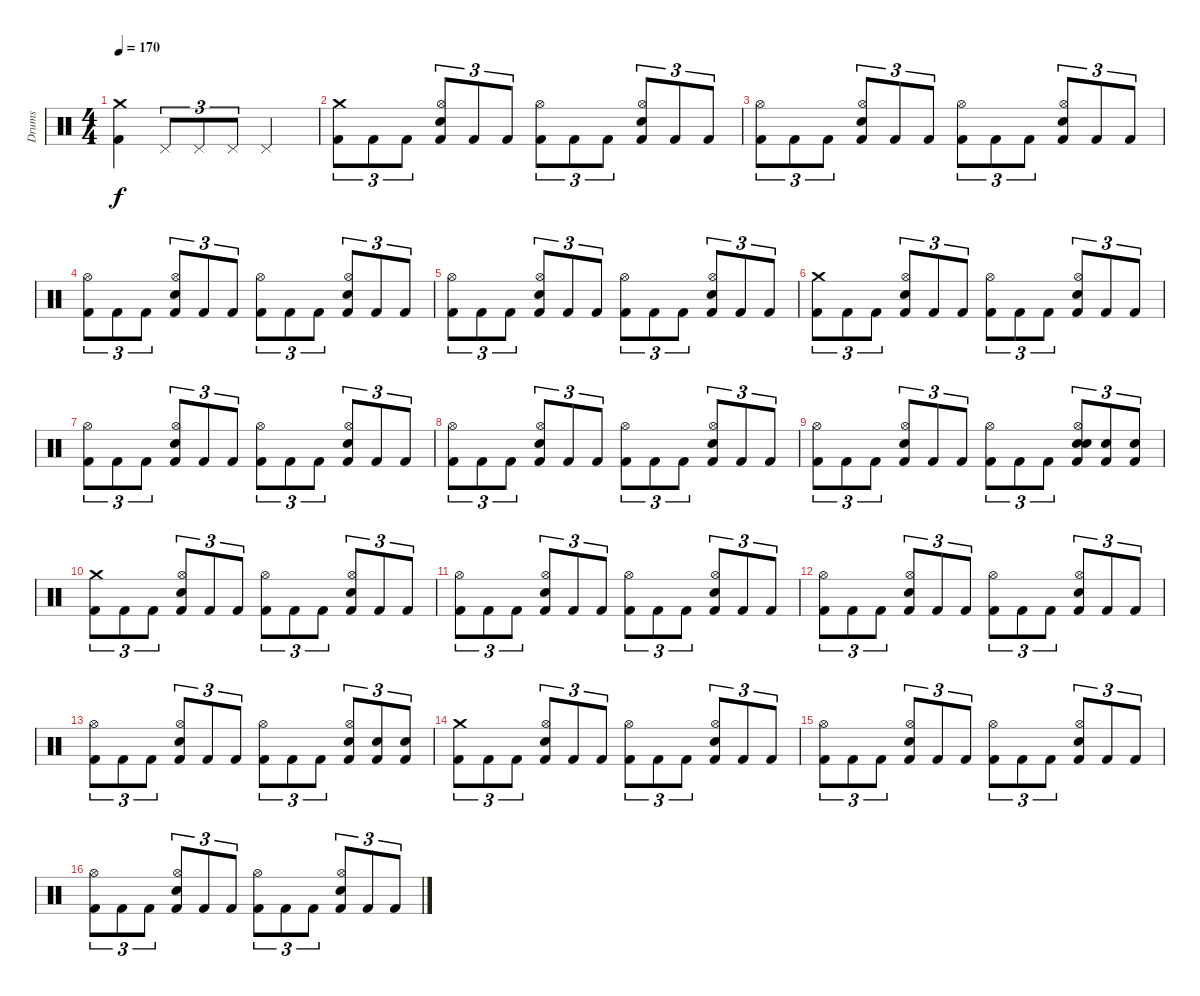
\track ("Drums" "Drums") {instrument percussion}
\staff {score}
\articulation defaults
\ts (4 4)
\tempo 170
\clef neutral
\ks c
("Crash medium (hit)" "Kick (hit) 2").4{dy f} "Pedal Hi-Hat (hit)".8{tu (3 2)} "Pedal Hi-Hat (hit)".8{tu (3 2)} "Pedal Hi-Hat (hit)".8{tu (3 2)} "Pedal Hi-Hat (hit)".2 |
("Crash medium (hit)" "Kick (hit) 2").8{tu (3 2)} "Kick (hit) 2".8{tu (3 2)} "Kick (hit) 2".8{tu (3 2)} ("Hi-Hat (open)" "Kick (hit) 2" "Snare (hit) 2").8{tu (3 2)} "Kick (hit) 2".8{tu (3 2)} "Kick (hit) 2".8{tu (3 2)} ("Hi-Hat (open)" "Kick (hit) 2").8{tu (3 2)} "Kick (hit) 2".8{tu (3 2)} "Kick (hit) 2".8{tu (3 2)} ("Hi-Hat (open)" "Snare (hit) 2" "Kick (hit) 2").8{tu (3 2)} "Kick (hit) 2".8{tu (3 2)} "Kick (hit) 2".8{tu (3 2)} |
("Hi-Hat (open)" "Kick (hit) 2").8{tu (3 2)} "Kick (hit) 2".8{tu (3 2)} "Kick (hit) 2".8{tu (3 2)} ("Hi-Hat (open)" "Kick (hit) 2" "Snare (hit) 2").8{tu (3 2)} "Kick (hit) 2".8{tu (3 2)} "Kick (hit) 2".8{tu (3 2)} ("Hi-Hat (open)" "Kick (hit) 2").8{tu (3 2)} "Kick (hit) 2".8{tu (3 2)} "Kick (hit) 2".8{tu (3 2)} ("Hi-Hat (open)" "Snare (hit) 2" "Kick (hit) 2").8{tu (3 2)} "Kick (hit) 2".8{tu (3 2)} "Kick (hit) 2".8{tu (3 2)} |
("Hi-Hat (open)" "Kick (hit) 2").8{tu (3 2)} "Kick (hit) 2".8{tu (3 2)} "Kick (hit) 2".8{tu (3 2)} ("Hi-Hat (open)" "Kick (hit) 2" "Snare (hit) 2").8{tu (3 2)} "Kick (hit) 2".8{tu (3 2)} "Kick (hit) 2".8{tu (3 2)} ("Hi-Hat (open)" "Kick (hit) 2").8{tu (3 2)} "Kick (hit) 2".8{tu (3 2)} "Kick (hit) 2".8{tu (3 2)} ("Hi-Hat (open)" "Snare (hit) 2" "Kick (hit) 2").8{tu (3 2)} "Kick (hit) 2".8{tu (3 2)} "Kick (hit) 2".8{tu (3 2)} |
("Hi-Hat (open)" "Kick (hit) 2").8{tu (3 2)} "Kick (hit) 2".8{tu (3 2)} "Kick (hit) 2".8{tu (3 2)} ("Hi-Hat (open)" "Kick (hit) 2" "Snare (hit) 2").8{tu (3 2)} "Kick (hit) 2".8{tu (3 2)} "Kick (hit) 2".8{tu (3 2)} ("Hi-Hat (open)" "Kick (hit) 2").8{tu (3 2)} "Kick (hit) 2".8{tu (3 2)} "Kick (hit) 2".8{tu (3 2)} ("Hi-Hat (open)" "Snare (hit) 2" "Kick (hit) 2").8{tu (3 2)} "Kick (hit) 2".8{tu (3 2)} "Kick (hit) 2".8{tu (3 2)} |
("Crash medium (hit)" "Kick (hit) 2").8{tu (3 2)} "Kick (hit) 2".8{tu (3 2)} "Kick (hit) 2".8{tu (3 2)} ("Hi-Hat (open)" "Kick (hit) 2" "Snare (hit) 2").8{tu (3 2)} "Kick (hit) 2".8{tu (3 2)} "Kick (hit) 2".8{tu (3 2)} ("Hi-Hat (open)" "Kick (hit) 2").8{tu (3 2)} "Kick (hit) 2".8{tu (3 2)} "Kick (hit) 2".8{tu (3 2)} ("Hi-Hat (open)" "Snare (hit) 2" "Kick (hit) 2").8{tu (3 2)} "Kick (hit) 2".8{tu (3 2)} "Kick (hit) 2".8{tu (3 2)} |
("Hi-Hat (open)" "Kick (hit) 2").8{tu (3 2)} "Kick (hit) 2".8{tu (3 2)} "Kick (hit) 2".8{tu (3 2)} ("Hi-Hat (open)" "Kick (hit) 2" "Snare (hit) 2").8{tu (3 2)} "Kick (hit) 2".8{tu (3 2)} "Kick (hit) 2".8{tu (3 2)} ("Hi-Hat (open)" "Kick (hit) 2").8{tu (3 2)} "Kick (hit) 2".8{tu (3 2)} "Kick (hit) 2".8{tu (3 2)} ("Hi-Hat (open)" "Snare (hit) 2" "Kick (hit) 2").8{tu (3 2)} "Kick (hit) 2".8{tu (3 2)} "Kick (hit) 2".8{tu (3 2)} |
("Hi-Hat (open)" "Kick (hit) 2").8{tu (3 2)} "Kick (hit) 2".8{tu (3 2)} "Kick (hit) 2".8{tu (3 2)} ("Hi-Hat (open)" "Kick (hit) 2" "Snare (hit) 2").8{tu (3 2)} "Kick (hit) 2".8{tu (3 2)} "Kick (hit) 2".8{tu (3 2)} ("Hi-Hat (open)" "Kick (hit) 2").8{tu (3 2)} "Kick (hit) 2".8{tu (3 2)} "Kick (hit) 2".8{tu (3 2)} ("Hi-Hat (open)" "Snare (hit) 2" "Kick (hit) 2").8{tu (3 2)} "Kick (hit) 2".8{tu (3 2)} "Kick (hit) 2".8{tu (3 2)} |
("Hi-Hat (open)" "Kick (hit) 2").8{tu (3 2)} "Kick (hit) 2".8{tu (3 2)} "Kick (hit) 2".8{tu (3 2)} ("Hi-Hat (open)" "Kick (hit) 2" "Snare (hit) 2").8{tu (3 2)} "Kick (hit) 2".8{tu (3 2)} "Kick (hit) 2".8{tu (3 2)} ("Hi-Hat (open)" "Kick (hit) 2").8{tu (3 2)} "Kick (hit) 2".8{tu (3 2)} "Kick (hit) 2".8{tu (3 2)} ("Snare (hit) 2" "Hi-Hat (open)" "Snare (hit) 2" "Kick (hit) 2").8{tu (3 2)} ("Snare (hit) 2" "Kick (hit) 2").8{tu (3 2)} ("Snare (hit) 2" "Kick (hit) 2").8{tu (3 2)} |
("Crash medium (hit)" "Kick (hit) 2").8{tu (3 2)} "Kick (hit) 2".8{tu (3 2)} "Kick (hit) 2".8{tu (3 2)} ("Hi-Hat (open)" "Kick (hit) 2" "Snare (hit) 2").8{tu (3 2)} "Kick (hit) 2".8{tu (3 2)} "Kick (hit) 2".8{tu (3 2)} ("Hi-Hat (open)" "Kick (hit) 2").8{tu (3 2)} "Kick (hit) 2".8{tu (3 2)} "Kick (hit) 2".8{tu (3 2)} ("Hi-Hat (open)" "Snare (hit) 2" "Kick (hit) 2").8{tu (3 2)} "Kick (hit) 2".8{tu (3 2)} "Kick (hit) 2".8{tu (3 2)} |
("Hi-Hat (open)" "Kick (hit) 2").8{tu (3 2)} "Kick (hit) 2".8{tu (3 2)} "Kick (hit) 2".8{tu (3 2)} ("Hi-Hat (open)" "Kick (hit) 2" "Snare (hit) 2").8{tu (3 2)} "Kick (hit) 2".8{tu (3 2)} "Kick (hit) 2".8{tu (3 2)} ("Hi-Hat (open)" "Kick (hit) 2").8{tu (3 2)} "Kick (hit) 2".8{tu (3 2)} "Kick (hit) 2".8{tu (3 2)} ("Hi-Hat (open)" "Snare (hit) 2" "Kick (hit) 2").8{tu (3 2)} "Kick (hit) 2".8{tu (3 2)} "Kick (hit) 2".8{tu (3 2)} |
("Hi-Hat (open)" "Kick (hit) 2").8{tu (3 2)} "Kick (hit) 2".8{tu (3 2)} "Kick (hit) 2".8{tu (3 2)} ("Hi-Hat (open)" "Kick (hit) 2" "Snare (hit) 2").8{tu (3 2)} "Kick (hit) 2".8{tu (3 2)} "Kick (hit) 2".8{tu (3 2)} ("Hi-Hat (open)" "Kick (hit) 2").8{tu (3 2)} "Kick (hit) 2".8{tu (3 2)} "Kick (hit) 2".8{tu (3 2)} ("Hi-Hat (open)" "Snare (hit) 2" "Kick (hit) 2").8{tu (3 2)} "Kick (hit) 2".8{tu (3 2)} "Kick (hit) 2".8{tu (3 2)} |
("Hi-Hat (open)" "Kick (hit) 2").8{tu (3 2)} "Kick (hit) 2".8{tu (3 2)} "Kick (hit) 2".8{tu (3 2)} ("Hi-Hat (open)" "Kick (hit) 2" "Snare (hit) 2").8{tu (3 2)} "Kick (hit) 2".8{tu (3 2)} "Kick (hit) 2".8{tu (3 2)} ("Hi-Hat (open)" "Kick (hit) 2").8{tu (3 2)} "Kick (hit) 2".8{tu (3 2)} "Kick (hit) 2".8{tu (3 2)} ("Hi-Hat (open)" "Snare (hit) 2" "Kick (hit) 2").8{tu (3 2)} ("Snare (hit) 2" "Kick (hit) 2").8{tu (3 2)} ("Snare (hit) 2" "Kick (hit) 2").8{tu (3 2)} |
("Crash medium (hit)" "Kick (hit) 2").8{tu (3 2)} "Kick (hit) 2".8{tu (3 2)} "Kick (hit) 2".8{tu (3 2)} ("Hi-Hat (open)" "Kick (hit) 2" "Snare (hit) 2").8{tu (3 2)} "Kick (hit) 2".8{tu (3 2)} "Kick (hit) 2".8{tu (3 2)} ("Hi-Hat (open)" "Kick (hit) 2").8{tu (3 2)} "Kick (hit) 2".8{tu (3 2)} "Kick (hit) 2".8{tu (3 2)} ("Hi-Hat (open)" "Snare (hit) 2" "Kick (hit) 2").8{tu (3 2)} "Kick (hit) 2".8{tu (3 2)} "Kick (hit) 2".8{tu (3 2)} |
("Hi-Hat (open)" "Kick (hit) 2").8{tu (3 2)} "Kick (hit) 2".8{tu (3 2)} "Kick (hit) 2".8{tu (3 2)} ("Hi-Hat (open)" "Kick (hit) 2" "Snare (hit) 2").8{tu (3 2)} "Kick (hit) 2".8{tu (3 2)} "Kick (hit) 2".8{tu (3 2)} ("Hi-Hat (open)" "Kick (hit) 2").8{tu (3 2)} "Kick (hit) 2".8{tu (3 2)} "Kick (hit) 2".8{tu (3 2)} ("Hi-Hat (open)" "Snare (hit) 2" "Kick (hit) 2").8{tu (3 2)} "Kick (hit) 2".8{tu (3 2)} "Kick (hit) 2".8{tu (3 2)} |
("Hi-Hat (open)" "Kick (hit) 2").8{tu (3 2)} "Kick (hit) 2".8{tu (3 2)} "Kick (hit) 2".8{tu (3 2)} ("Hi-Hat (open)" "Kick (hit) 2" "Snare (hit) 2").8{tu (3 2)} "Kick (hit) 2".8{tu (3 2)} "Kick (hit) 2".8{tu (3 2)} ("Hi-Hat (open)" "Kick (hit) 2").8{tu (3 2)} "Kick (hit) 2".8{tu (3 2)} "Kick (hit) 2".8{tu (3 2)} ("Hi-Hat (open)" "Snare (hit) 2" "Kick (hit) 2").8{tu (3 2)} "Kick (hit) 2".8{tu (3 2)} "Kick (hit) 2".8{tu (3 2)}
